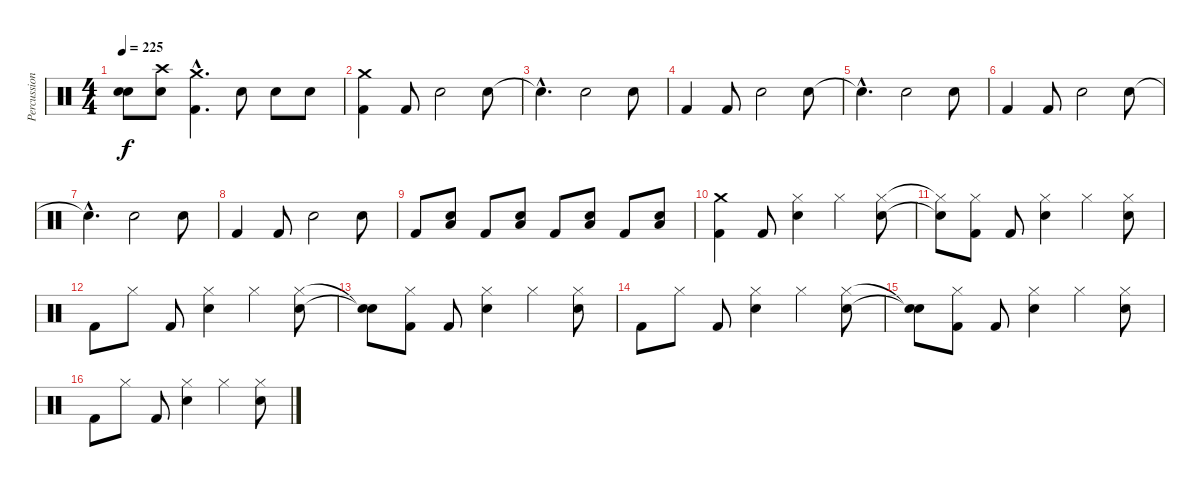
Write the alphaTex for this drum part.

\track ("Percussion" "Percussion") {instrument percussion}
\staff {score}
\articulation defaults
\ts (4 4)
\tempo 225
\clef neutral
\ks c
("Snare (hit)"{t} "Snare (hit)"{t}).8{dy f} ("Crash high (hit)" "Snare (hit) 2").8 ("Crash medium (hit)"{hac} "Kick (hit) 2"{hac}).4{d} "Snare (hit) 2".8 "Snare (hit) 2".8 "Snare (hit) 2".8 |
("Crash medium (hit)" "Kick (hit) 2").4 "Kick (hit) 2".8 "Snare (hit) 2".2 "Snare (hit) 2".8 |
"Snare (hit) 2"{hac t}.4{d} "Snare (hit) 2".2 "Snare (hit) 2".8 |
"Kick (hit) 2".4 "Kick (hit) 2".8 "Snare (hit) 2".2 "Snare (hit) 2".8 |
"Snare (hit) 2"{hac t}.4{d} "Snare (hit) 2".2 "Snare (hit) 2".8 |
"Kick (hit) 2".4 "Kick (hit) 2".8 "Snare (hit) 2".2 "Snare (hit) 2".8 |
"Snare (hit) 2"{hac t}.4{d} "Snare (hit) 2".2 "Snare (hit) 2".8 |
"Kick (hit) 2".4 "Kick (hit) 2".8 "Snare (hit) 2".2 "Snare (hit) 2".8 |
"Kick (hit) 2".8 ("Snare (hit) 2" "Low Floor Tom (hit)").8 "Kick (hit) 2".8 ("Snare (hit) 2" "Low Floor Tom (hit)").8 "Kick (hit) 2".8 ("Snare (hit) 2" "Low Floor Tom (hit)").8 "Kick (hit) 2".8 ("Snare (hit) 2" "Low Floor Tom (hit)").8 |
("Crash medium (hit)" "Kick (hit) 2").4 "Kick (hit) 2".8 ("Hi-Hat (closed)" "Snare (hit) 2").4 "Hi-Hat (closed)".4 ("Hi-Hat (closed)" "Snare (hit) 2").8 |
("Hi-Hat (closed)"{t} "Snare (hit)"{t}).8 ("Hi-Hat (closed)" "Kick (hit) 2").8 "Kick (hit) 2".8 ("Hi-Hat (closed)" "Snare (hit) 2").4 "Hi-Hat (closed)".4 ("Hi-Hat (closed)" "Snare (hit) 2").8 |
"Kick (hit) 2".8 "Hi-Hat (closed)".8 "Kick (hit) 2".8 ("Hi-Hat (closed)" "Snare (hit) 2").4 "Hi-Hat (closed)".4 ("Hi-Hat (closed)" "Snare (hit) 2").8 |
("Snare (hit)"{t} "Snare (hit)"{t}).8 ("Hi-Hat (closed)" "Kick (hit) 2").8 "Kick (hit) 2".8 ("Hi-Hat (closed)" "Snare (hit) 2").4 "Hi-Hat (closed)".4 ("Hi-Hat (closed)" "Snare (hit) 2").8 |
"Kick (hit) 2".8 "Hi-Hat (closed)".8 "Kick (hit) 2".8 ("Hi-Hat (closed)" "Snare (hit) 2").4 "Hi-Hat (closed)".4 ("Hi-Hat (closed)" "Snare (hit) 2").8 |
("Snare (hit)"{t} "Snare (hit)"{t}).8 ("Hi-Hat (closed)" "Kick (hit) 2").8 "Kick (hit) 2".8 ("Hi-Hat (closed)" "Snare (hit) 2").4 "Hi-Hat (closed)".4 ("Hi-Hat (closed)" "Snare (hit) 2").8 |
"Kick (hit) 2".8 "Hi-Hat (closed)".8 "Kick (hit) 2".8 ("Hi-Hat (closed)" "Snare (hit) 2").4 "Hi-Hat (closed)".4 ("Hi-Hat (closed)" "Snare (hit) 2").8
